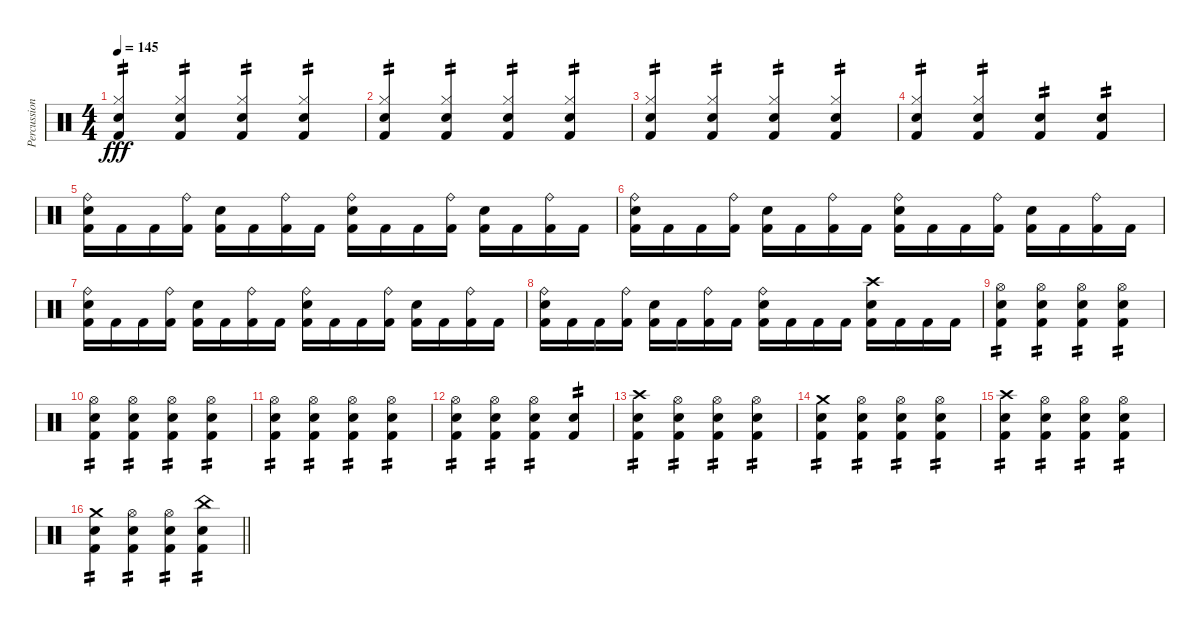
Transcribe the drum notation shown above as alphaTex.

\track ("Percussion" "Percussion") {instrument percussion}
\staff {score}
\articulation defaults
\ts (4 4)
\tempo 145
\clef neutral
\ks c
("Electric Snare (hit)" "Hi-Hat (closed)" "Kick (hit) 2").4{tp 2 dy fff} ("Electric Snare (hit)" "Hi-Hat (closed)" "Kick (hit) 2").4{tp 2} ("Electric Snare (hit)" "Hi-Hat (closed)" "Kick (hit) 2").4{tp 2} ("Electric Snare (hit)" "Hi-Hat (closed)" "Kick (hit) 2").4{tp 2} |
("Electric Snare (hit)" "Hi-Hat (closed)" "Kick (hit) 2").4{tp 2} ("Electric Snare (hit)" "Hi-Hat (closed)" "Kick (hit) 2").4{tp 2} ("Electric Snare (hit)" "Hi-Hat (closed)" "Kick (hit) 2").4{tp 2} ("Electric Snare (hit)" "Hi-Hat (closed)" "Kick (hit) 2").4{tp 2} |
("Electric Snare (hit)" "Hi-Hat (closed)" "Kick (hit) 2").4{tp 2} ("Electric Snare (hit)" "Hi-Hat (closed)" "Kick (hit) 2").4{tp 2} ("Electric Snare (hit)" "Hi-Hat (closed)" "Kick (hit) 2").4{tp 2} ("Electric Snare (hit)" "Hi-Hat (closed)" "Kick (hit) 2").4{tp 2} |
("Electric Snare (hit)" "Hi-Hat (closed)" "Kick (hit) 2").4{tp 2} ("Electric Snare (hit)" "Hi-Hat (closed)" "Kick (hit) 2").4{tp 2} ("Electric Snare (hit)" "Kick (hit) 2").4{tp 2} ("Electric Snare (hit)" "Kick (hit) 2").4{tp 2} |
("Electric Snare (hit)" "Ride (bell)" "Kick (hit) 2").16 "Kick (hit) 2".16 "Kick (hit) 2".16 ("Ride (bell)" "Kick (hit) 2").16 ("Electric Snare (hit)" "Kick (hit) 2").16 "Kick (hit) 2".16 ("Ride (bell)" "Kick (hit) 2").16 "Kick (hit) 2".16 ("Electric Snare (hit)" "Ride (bell)" "Kick (hit) 2").16 "Kick (hit) 2".16 "Kick (hit) 2".16 ("Ride (bell)" "Kick (hit) 2").16 ("Electric Snare (hit)" "Kick (hit) 2").16 "Kick (hit) 2".16 ("Ride (bell)" "Kick (hit) 2").16 "Kick (hit) 2".16 |
("Electric Snare (hit)" "Ride (bell)" "Kick (hit) 2").16 "Kick (hit) 2".16 "Kick (hit) 2".16 ("Ride (bell)" "Kick (hit) 2").16 ("Electric Snare (hit)" "Kick (hit) 2").16 "Kick (hit) 2".16 ("Ride (bell)" "Kick (hit) 2").16 "Kick (hit) 2".16 ("Electric Snare (hit)" "Ride (bell)" "Kick (hit) 2").16 "Kick (hit) 2".16 "Kick (hit) 2".16 ("Ride (bell)" "Kick (hit) 2").16 ("Electric Snare (hit)" "Kick (hit) 2").16 "Kick (hit) 2".16 ("Ride (bell)" "Kick (hit) 2").16 "Kick (hit) 2".16 |
("Electric Snare (hit)" "Ride (bell)" "Kick (hit) 2").16 "Kick (hit) 2".16 "Kick (hit) 2".16 ("Ride (bell)" "Kick (hit) 2").16 ("Electric Snare (hit)" "Kick (hit) 2").16 "Kick (hit) 2".16 ("Ride (bell)" "Kick (hit) 2").16 "Kick (hit) 2".16 ("Electric Snare (hit)" "Ride (bell)" "Kick (hit) 2").16 "Kick (hit) 2".16 "Kick (hit) 2".16 ("Ride (bell)" "Kick (hit) 2").16 ("Electric Snare (hit)" "Kick (hit) 2").16 "Kick (hit) 2".16 ("Ride (bell)" "Kick (hit) 2").16 "Kick (hit) 2".16 |
("Electric Snare (hit)" "Ride (bell)" "Kick (hit) 2").16 "Kick (hit) 2".16 "Kick (hit) 2".16 ("Ride (bell)" "Kick (hit) 2").16 ("Electric Snare (hit)" "Kick (hit) 2").16 "Kick (hit) 2".16 ("Ride (bell)" "Kick (hit) 2").16 "Kick (hit) 2".16 ("Electric Snare (hit)" "Ride (bell)" "Kick (hit) 2").16 "Kick (hit) 2".16 "Kick (hit) 2".16 "Kick (hit) 2".16 ("Electric Snare (hit)" "Crash high (hit)" "Kick (hit) 2").16 "Kick (hit) 2".16 "Kick (hit) 2".16 "Kick (hit) 2".16 |
("Electric Snare (hit)" "Hi-Hat (open)" "Kick (hit) 2").4{tp 2} ("Electric Snare (hit)" "Hi-Hat (open)" "Kick (hit) 2").4{tp 2} ("Electric Snare (hit)" "Hi-Hat (open)" "Kick (hit) 2").4{tp 2} ("Electric Snare (hit)" "Hi-Hat (open)" "Kick (hit) 2").4{tp 2} |
("Electric Snare (hit)" "Hi-Hat (open)" "Kick (hit) 2").4{tp 2} ("Electric Snare (hit)" "Hi-Hat (open)" "Kick (hit) 2").4{tp 2} ("Electric Snare (hit)" "Hi-Hat (open)" "Kick (hit) 2").4{tp 2} ("Electric Snare (hit)" "Hi-Hat (open)" "Kick (hit) 2").4{tp 2} |
("Electric Snare (hit)" "Hi-Hat (open)" "Kick (hit) 2").4{tp 2} ("Electric Snare (hit)" "Hi-Hat (open)" "Kick (hit) 2").4{tp 2} ("Electric Snare (hit)" "Hi-Hat (open)" "Kick (hit) 2").4{tp 2} ("Electric Snare (hit)" "Hi-Hat (open)" "Kick (hit) 2").4{tp 2} |
("Electric Snare (hit)" "Hi-Hat (open)" "Kick (hit) 2").4{tp 2} ("Electric Snare (hit)" "Hi-Hat (open)" "Kick (hit) 2").4{tp 2} ("Electric Snare (hit)" "Hi-Hat (open)" "Kick (hit) 2").4{tp 2} ("Electric Snare (hit)" "Kick (hit) 2").4{tp 2} |
("Electric Snare (hit)" "Crash high (hit)" "Kick (hit) 2").4{tp 2} ("Electric Snare (hit)" "Hi-Hat (open)" "Kick (hit) 2").4{tp 2} ("Electric Snare (hit)" "Hi-Hat (open)" "Kick (hit) 2").4{tp 2} ("Electric Snare (hit)" "Hi-Hat (open)" "Kick (hit) 2").4{tp 2} |
("Electric Snare (hit)" "Crash medium (hit)" "Kick (hit) 2").4{tp 2} ("Electric Snare (hit)" "Hi-Hat (open)" "Kick (hit) 2").4{tp 2} ("Electric Snare (hit)" "Hi-Hat (open)" "Kick (hit) 2").4{tp 2} ("Electric Snare (hit)" "Hi-Hat (open)" "Kick (hit) 2").4{tp 2} |
("Electric Snare (hit)" "Crash high (hit)" "Kick (hit) 2").4{tp 2} ("Electric Snare (hit)" "Hi-Hat (open)" "Kick (hit) 2").4{tp 2} ("Electric Snare (hit)" "Hi-Hat (open)" "Kick (hit) 2").4{tp 2} ("Electric Snare (hit)" "Hi-Hat (open)" "Kick (hit) 2").4{tp 2} |
\barLineRight lightlight
("Electric Snare (hit)" "Crash medium (hit)" "Kick (hit) 2").4{tp 2} ("Electric Snare (hit)" "Hi-Hat (open)" "Kick (hit) 2").4{tp 2} ("Electric Snare (hit)" "Hi-Hat (open)" "Kick (hit) 2").4{tp 2} ("Electric Snare (hit)" "China (hit)" "Kick (hit) 2").4{tp 2}
